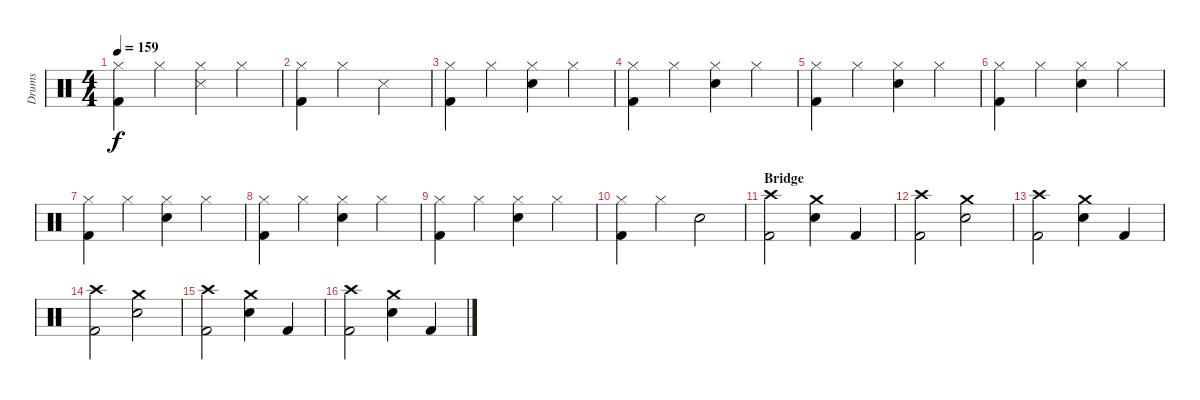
\track ("Drums" "Drums") {instrument percussion}
\staff {score}
\articulation defaults
\ts (4 4)
\tempo 159
\clef neutral
\ks c
("Hi-Hat (closed)" "Kick (hit) 2").4{dy f} "Hi-Hat (closed)".4 ("Hi-Hat (closed)" "Snare (side stick) 3").4 "Hi-Hat (closed)".4 |
("Hi-Hat (closed)" "Kick (hit) 2").4 "Hi-Hat (closed)".4 "Snare (side stick) 3".2 |
("Hi-Hat (closed)" "Kick (hit) 2").4 "Hi-Hat (closed)".4 ("Hi-Hat (closed)" "Electric Snare (hit)").4 "Hi-Hat (closed)".4 |
("Hi-Hat (closed)" "Kick (hit) 2").4 "Hi-Hat (closed)".4 ("Hi-Hat (closed)" "Electric Snare (hit)").4 "Hi-Hat (closed)".4 |
("Hi-Hat (closed)" "Kick (hit) 2").4 "Hi-Hat (closed)".4 ("Hi-Hat (closed)" "Electric Snare (hit)").4 "Hi-Hat (closed)".4 |
("Hi-Hat (closed)" "Kick (hit) 2").4 "Hi-Hat (closed)".4 ("Hi-Hat (closed)" "Electric Snare (hit)").4 "Hi-Hat (closed)".4 |
("Hi-Hat (closed)" "Kick (hit) 2").4 "Hi-Hat (closed)".4 ("Hi-Hat (closed)" "Electric Snare (hit)").4 "Hi-Hat (closed)".4 |
("Hi-Hat (closed)" "Kick (hit) 2").4 "Hi-Hat (closed)".4 ("Hi-Hat (closed)" "Electric Snare (hit)").4 "Hi-Hat (closed)".4 |
("Hi-Hat (closed)" "Kick (hit) 2").4 "Hi-Hat (closed)".4 ("Hi-Hat (closed)" "Electric Snare (hit)").4 "Hi-Hat (closed)".4 |
("Hi-Hat (closed)" "Kick (hit) 2").4 "Hi-Hat (closed)".4 "Electric Snare (hit)".2 |
\section ("" "Bridge")
("Crash high (hit)" "Kick (hit) 2").2 ("Crash medium (hit)" "Electric Snare (hit)").4 "Kick (hit) 2".4 |
("Crash high (hit)" "Kick (hit) 2").2 ("Crash medium (hit)" "Electric Snare (hit)").2 |
("Crash high (hit)" "Kick (hit) 2").2 ("Crash medium (hit)" "Electric Snare (hit)").4 "Kick (hit) 2".4 |
("Crash high (hit)" "Kick (hit) 2").2 ("Crash medium (hit)" "Electric Snare (hit)").2 |
("Crash high (hit)" "Kick (hit) 2").2 ("Crash medium (hit)" "Electric Snare (hit)").4 "Kick (hit) 2".4 |
("Crash high (hit)" "Kick (hit) 2").2 ("Crash medium (hit)" "Electric Snare (hit)").4 "Kick (hit) 2".4
